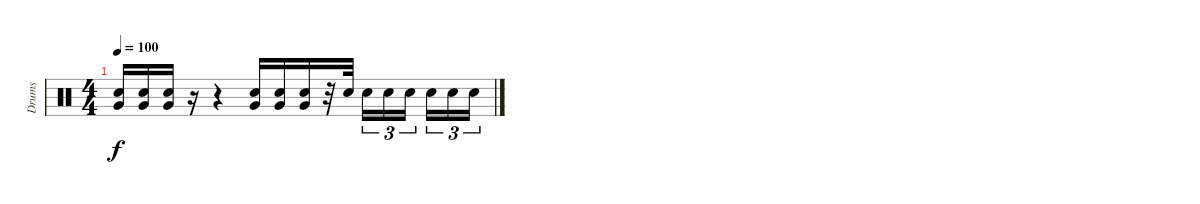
\track ("Drums" "Drums") {instrument percussion}
\staff {score}
\articulation defaults
\ts (4 4)
\tempo 100
\clef neutral
\ks c
("Electric Snare (hit)" "Very Low Tom (hit)").16{dy f} ("Electric Snare (hit)" "Very Low Tom (hit)").16 ("Electric Snare (hit)" "Very Low Tom (hit)").16 r.16 r.4 ("Electric Snare (hit)" "Very Low Tom (hit)").16 ("Electric Snare (hit)" "Very Low Tom (hit)").16 ("Electric Snare (hit)" "Very Low Tom (hit)").16 r.32 "Electric Snare (hit)".32 "Electric Snare (hit)".16{tu (3 2)} "Electric Snare (hit)".16{tu (3 2)} "Electric Snare (hit)".16{tu (3 2)} "Electric Snare (hit)".16{tu (3 2)} "Electric Snare (hit)".16{tu (3 2)} "Electric Snare (hit)".16{tu (3 2)}
